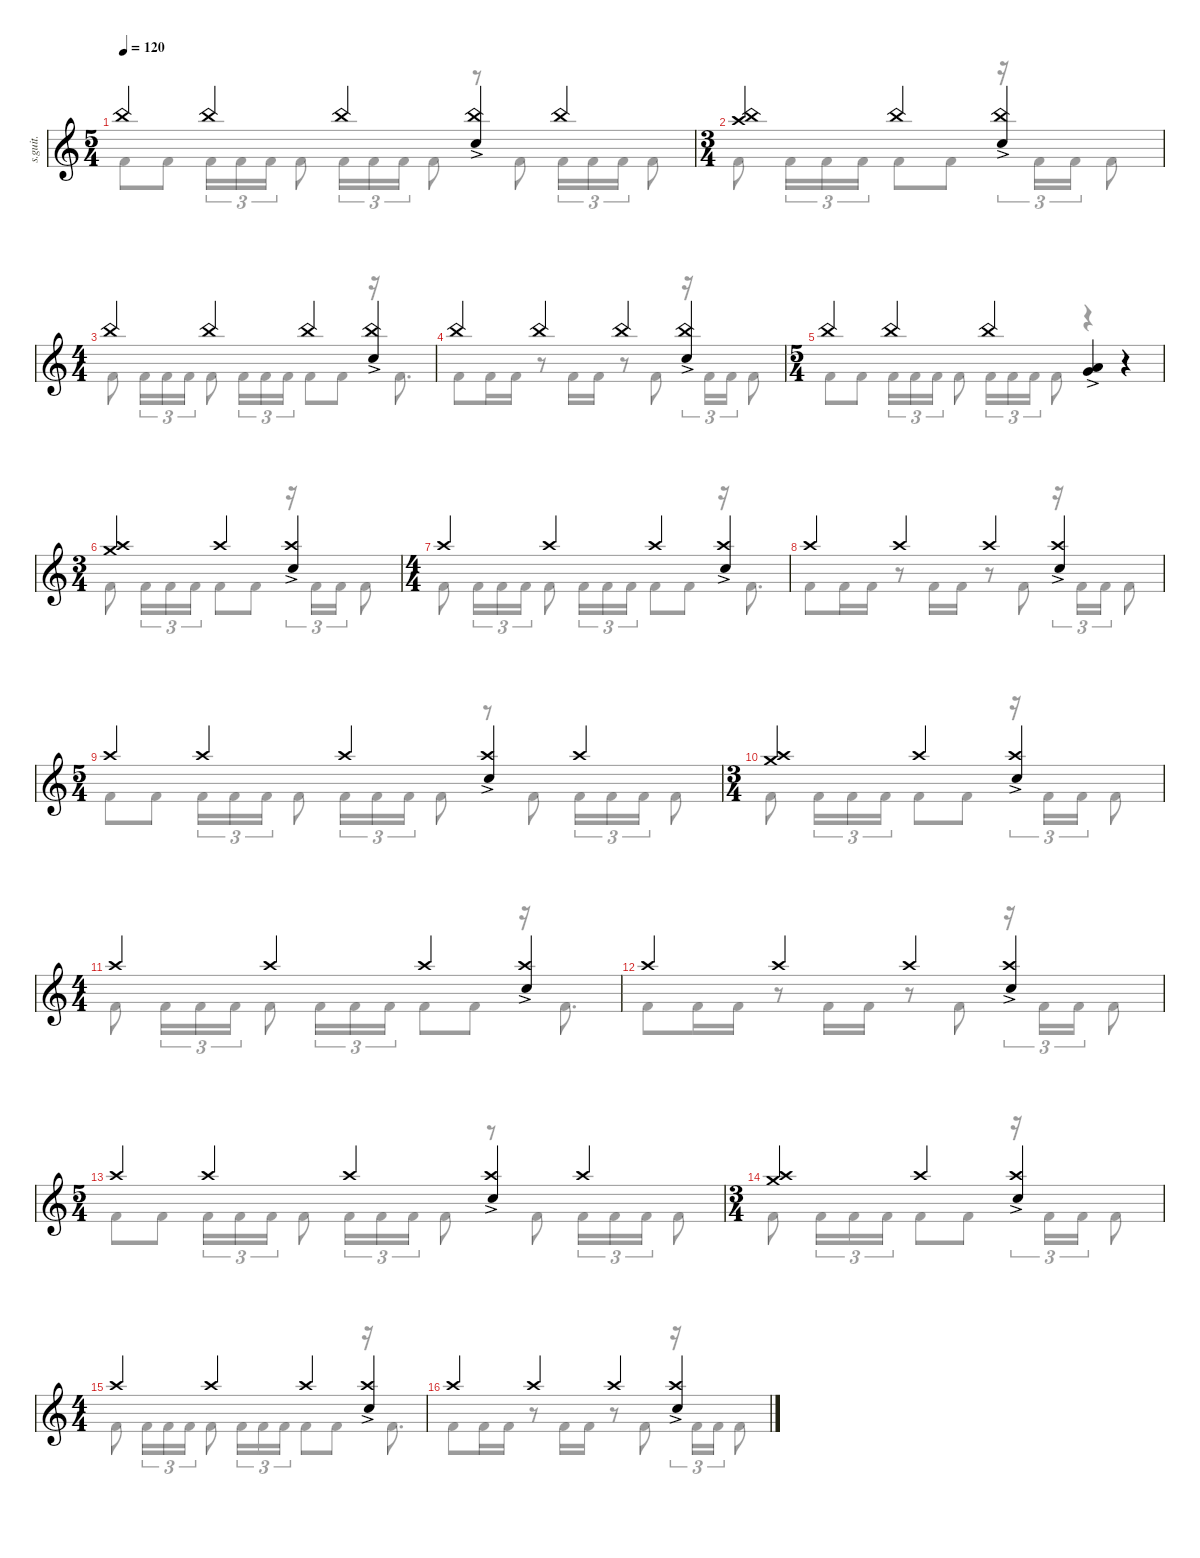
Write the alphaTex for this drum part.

\defaultSystemsLayout 4
\hideDynamics
\bracketExtendMode nobrackets
\track ("Percussion" "s.guit.") {instrument percussion}
\staff {score}
\articulation defaults
\voice
\ts (5 4)
\beaming (8 2 2 2 2)
\tempo 120
\clef g2
\ks c "China (hit)".4{lyrics (0 "") lyrics (1 "") lyrics (2 "") lyrics (3 "") lyrics (4 "") dy f} "China (hit)".4{lyrics (0 "") lyrics (1 "") lyrics (2 "") lyrics (3 "") lyrics (4 "")} "China (hit)".4{lyrics (0 "") lyrics (1 "") lyrics (2 "") lyrics (3 "") lyrics (4 "")}
("China (hit)" "Snare (hit) 2"{ac}).4{lyrics (0 "") lyrics (1 "") lyrics (2 "") lyrics (3 "") lyrics (4 "")} "China (hit)".4{lyrics (0 "") lyrics (1 "") lyrics (2 "") lyrics (3 "") lyrics (4 "")} |
\ts (3 4)
\beaming (8 2 2 2 2)
("China (hit)" "Crash high (hit)").4{lyrics (0 "") lyrics (1 "") lyrics (2 "") lyrics (3 "") lyrics (4 "")} "China (hit)".4{lyrics (0 "") lyrics (1 "") lyrics (2 "") lyrics (3 "") lyrics (4 "")} ("China (hit)" "Snare (hit) 2"{ac}).4{lyrics (0 "") lyrics (1 "") lyrics (2 "") lyrics (3 "") lyrics (4 "")} |
\ts (4 4)
\beaming (8 2 2 2 2)
"China (hit)".4{lyrics (0 "") lyrics (1 "") lyrics (2 "") lyrics (3 "") lyrics (4 "")} "China (hit)".4{lyrics (0 "") lyrics (1 "") lyrics (2 "") lyrics (3 "") lyrics (4 "")} "China (hit)".4{lyrics (0 "") lyrics (1 "") lyrics (2 "") lyrics (3 "") lyrics (4 "")} ("China (hit)" "Snare (hit) 2"{ac}).4{lyrics (0 "") lyrics (1 "") lyrics (2 "") lyrics (3 "") lyrics (4 "")} |
"China (hit)".4{lyrics (0 "") lyrics (1 "") lyrics (2 "") lyrics (3 "") lyrics (4 "")} "China (hit)".4{lyrics (0 "") lyrics (1 "") lyrics (2 "") lyrics (3 "") lyrics (4 "")} "China (hit)".4{lyrics (0 "") lyrics (1 "") lyrics (2 "") lyrics (3 "") lyrics (4 "")} ("China (hit)" "Snare (hit) 2"{ac}).4{lyrics (0 "") lyrics (1 "") lyrics (2 "") lyrics (3 "") lyrics (4 "")} |
\ts (5 4)
\beaming (8 2 2 2 2)
"China (hit)".4{lyrics (0 "") lyrics (1 "") lyrics (2 "") lyrics (3 "") lyrics (4 "")} "China (hit)".4{lyrics (0 "") lyrics (1 "") lyrics (2 "") lyrics (3 "") lyrics (4 "")} "China (hit)".4{lyrics (0 "") lyrics (1 "") lyrics (2 "") lyrics (3 "") lyrics (4 "")} ("Very Low Tom (hit)"{ac} "Low Tom (hit)"{ac}).4{lyrics (0 "") lyrics (1 "") lyrics (2 "") lyrics (3 "") lyrics (4 "") dy mf} r.4 |
\ts (3 4)
\beaming (8 2 2 2 2)
("Crash high (hit)" "Crash medium (hit)").4{lyrics (0 "") lyrics (1 "") lyrics (2 "") lyrics (3 "") lyrics (4 "") dy f} "Crash high (hit)".4{lyrics (0 "") lyrics (1 "") lyrics (2 "") lyrics (3 "") lyrics (4 "")} ("Snare (hit) 2"{ac} "Crash high (hit)").4{lyrics (0 "") lyrics (1 "") lyrics (2 "") lyrics (3 "") lyrics (4 "")} |
\ts (4 4)
\beaming (8 2 2 2 2)
"Crash high (hit)".4{lyrics (0 "") lyrics (1 "") lyrics (2 "") lyrics (3 "") lyrics (4 "")} "Crash high (hit)".4{lyrics (0 "") lyrics (1 "") lyrics (2 "") lyrics (3 "") lyrics (4 "")} "Crash high (hit)".4{lyrics (0 "") lyrics (1 "") lyrics (2 "") lyrics (3 "") lyrics (4 "")} ("Snare (hit) 2"{ac} "Crash high (hit)").4{lyrics (0 "") lyrics (1 "") lyrics (2 "") lyrics (3 "") lyrics (4 "")} |
"Crash high (hit)".4{lyrics (0 "") lyrics (1 "") lyrics (2 "") lyrics (3 "") lyrics (4 "")} "Crash high (hit)".4{lyrics (0 "") lyrics (1 "") lyrics (2 "") lyrics (3 "") lyrics (4 "")} "Crash high (hit)".4{lyrics (0 "") lyrics (1 "") lyrics (2 "") lyrics (3 "") lyrics (4 "")} ("Snare (hit) 2"{ac} "Crash high (hit)").4{lyrics (0 "") lyrics (1 "") lyrics (2 "") lyrics (3 "") lyrics (4 "")} |
\ts (5 4)
\beaming (8 2 2 2 2)
"Crash high (hit)".4{lyrics (0 "") lyrics (1 "") lyrics (2 "") lyrics (3 "") lyrics (4 "")} "Crash high (hit)".4{lyrics (0 "") lyrics (1 "") lyrics (2 "") lyrics (3 "") lyrics (4 "")} "Crash high (hit)".4{lyrics (0 "") lyrics (1 "") lyrics (2 "") lyrics (3 "") lyrics (4 "")} ("Snare (hit) 2"{ac} "Crash high (hit)").4{lyrics (0 "") lyrics (1 "") lyrics (2 "") lyrics (3 "") lyrics (4 "")} "Crash high (hit)".4{lyrics (0 "") lyrics (1 "") lyrics (2 "") lyrics (3 "") lyrics (4 "")} |
\ts (3 4)
\beaming (8 2 2 2 2)
("Crash high (hit)" "Crash medium (hit)").4{lyrics (0 "") lyrics (1 "") lyrics (2 "") lyrics (3 "") lyrics (4 "")} "Crash high (hit)".4{lyrics (0 "") lyrics (1 "") lyrics (2 "") lyrics (3 "") lyrics (4 "")} ("Snare (hit) 2"{ac} "Crash high (hit)").4{lyrics (0 "") lyrics (1 "") lyrics (2 "") lyrics (3 "") lyrics (4 "")} |
\ts (4 4)
\beaming (8 2 2 2 2)
"Crash high (hit)".4{lyrics (0 "") lyrics (1 "") lyrics (2 "") lyrics (3 "") lyrics (4 "")} "Crash high (hit)".4{lyrics (0 "") lyrics (1 "") lyrics (2 "") lyrics (3 "") lyrics (4 "")} "Crash high (hit)".4{lyrics (0 "") lyrics (1 "") lyrics (2 "") lyrics (3 "") lyrics (4 "")} ("Snare (hit) 2"{ac} "Crash high (hit)").4{lyrics (0 "") lyrics (1 "") lyrics (2 "") lyrics (3 "") lyrics (4 "")} |
"Crash high (hit)".4{lyrics (0 "") lyrics (1 "") lyrics (2 "") lyrics (3 "") lyrics (4 "")} "Crash high (hit)".4{lyrics (0 "") lyrics (1 "") lyrics (2 "") lyrics (3 "") lyrics (4 "")} "Crash high (hit)".4{lyrics (0 "") lyrics (1 "") lyrics (2 "") lyrics (3 "") lyrics (4 "")} ("Snare (hit) 2"{ac} "Crash high (hit)").4{lyrics (0 "") lyrics (1 "") lyrics (2 "") lyrics (3 "") lyrics (4 "")} |
\ts (5 4)
\beaming (8 2 2 2 2)
"Crash high (hit)".4{lyrics (0 "") lyrics (1 "") lyrics (2 "") lyrics (3 "") lyrics (4 "")} "Crash high (hit)".4{lyrics (0 "") lyrics (1 "") lyrics (2 "") lyrics (3 "") lyrics (4 "")} "Crash high (hit)".4{lyrics (0 "") lyrics (1 "") lyrics (2 "") lyrics (3 "") lyrics (4 "")} ("Snare (hit) 2"{ac} "Crash high (hit)").4{lyrics (0 "") lyrics (1 "") lyrics (2 "") lyrics (3 "") lyrics (4 "")} "Crash high (hit)".4{lyrics (0 "") lyrics (1 "") lyrics (2 "") lyrics (3 "") lyrics (4 "")} |
\ts (3 4)
\beaming (8 2 2 2 2)
("Crash high (hit)" "Crash medium (hit)").4{lyrics (0 "") lyrics (1 "") lyrics (2 "") lyrics (3 "") lyrics (4 "")} "Crash high (hit)".4{lyrics (0 "") lyrics (1 "") lyrics (2 "") lyrics (3 "") lyrics (4 "")} ("Snare (hit) 2"{ac} "Crash high (hit)").4{lyrics (0 "") lyrics (1 "") lyrics (2 "") lyrics (3 "") lyrics (4 "")} |
\ts (4 4)
\beaming (8 2 2 2 2)
"Crash high (hit)".4{lyrics (0 "") lyrics (1 "") lyrics (2 "") lyrics (3 "") lyrics (4 "")} "Crash high (hit)".4{lyrics (0 "") lyrics (1 "") lyrics (2 "") lyrics (3 "") lyrics (4 "")} "Crash high (hit)".4{lyrics (0 "") lyrics (1 "") lyrics (2 "") lyrics (3 "") lyrics (4 "")} ("Snare (hit) 2"{ac} "Crash high (hit)").4{lyrics (0 "") lyrics (1 "") lyrics (2 "") lyrics (3 "") lyrics (4 "")} |
"Crash high (hit)".4{lyrics (0 "") lyrics (1 "") lyrics (2 "") lyrics (3 "") lyrics (4 "")} "Crash high (hit)".4{lyrics (0 "") lyrics (1 "") lyrics (2 "") lyrics (3 "") lyrics (4 "")} "Crash high (hit)".4{lyrics (0 "") lyrics (1 "") lyrics (2 "") lyrics (3 "") lyrics (4 "")} ("Snare (hit) 2"{ac} "Crash high (hit)").4{lyrics (0 "") lyrics (1 "") lyrics (2 "") lyrics (3 "") lyrics (4 "")}
\voice
\clef g2
\ottava regular
\simile none
\ks c "Kick (hit) 2".8{lyrics (0 "") lyrics (1 "") lyrics (2 "") lyrics (3 "") lyrics (4 "") dy f} "Kick (hit) 2".8{lyrics (0 "") lyrics (1 "") lyrics (2 "") lyrics (3 "") lyrics (4 "")} "Kick (hit) 2".16{tu (3 2) lyrics (0 "") lyrics (1 "") lyrics (2 "") lyrics (3 "") lyrics (4 "")} "Kick (hit) 2".16{tu (3 2) lyrics (0 "") lyrics (1 "") lyrics (2 "") lyrics (3 "") lyrics (4 "")} "Kick (hit) 2".16{tu (3 2) lyrics (0 "") lyrics (1 "") lyrics (2 "") lyrics (3 "") lyrics (4 "")} "Kick (hit) 2".8{lyrics (0 "") lyrics (1 "") lyrics (2 "") lyrics (3 "") lyrics (4 "")} "Kick (hit) 2".16{tu (3 2) lyrics (0 "") lyrics (1 "") lyrics (2 "") lyrics (3 "") lyrics (4 "")} "Kick (hit) 2".16{tu (3 2) lyrics (0 "") lyrics (1 "") lyrics (2 "") lyrics (3 "") lyrics (4 "")} "Kick (hit) 2".16{tu (3 2) lyrics (0 "") lyrics (1 "") lyrics (2 "") lyrics (3 "") lyrics (4 "")} "Kick (hit) 2".8{lyrics (0 "") lyrics (1 "") lyrics (2 "") lyrics (3 "") lyrics (4 "")}
r.8 "Kick (hit) 2".8{lyrics (0 "") lyrics (1 "") lyrics (2 "") lyrics (3 "") lyrics (4 "")} "Kick (hit) 2".16{tu (3 2) lyrics (0 "") lyrics (1 "") lyrics (2 "") lyrics (3 "") lyrics (4 "")} "Kick (hit) 2".16{tu (3 2) lyrics (0 "") lyrics (1 "") lyrics (2 "") lyrics (3 "") lyrics (4 "")} "Kick (hit) 2".16{tu (3 2) lyrics (0 "") lyrics (1 "") lyrics (2 "") lyrics (3 "") lyrics (4 "")} "Kick (hit) 2".8{lyrics (0 "") lyrics (1 "") lyrics (2 "") lyrics (3 "") lyrics (4 "")} |
"Kick (hit) 2".8{lyrics (0 "") lyrics (1 "") lyrics (2 "") lyrics (3 "") lyrics (4 "")} "Kick (hit) 2".16{tu (3 2) lyrics (0 "") lyrics (1 "") lyrics (2 "") lyrics (3 "") lyrics (4 "")} "Kick (hit) 2".16{tu (3 2) lyrics (0 "") lyrics (1 "") lyrics (2 "") lyrics (3 "") lyrics (4 "")} "Kick (hit) 2".16{tu (3 2) lyrics (0 "") lyrics (1 "") lyrics (2 "") lyrics (3 "") lyrics (4 "")} "Kick (hit) 2".8{lyrics (0 "") lyrics (1 "") lyrics (2 "") lyrics (3 "") lyrics (4 "")} "Kick (hit) 2".8{lyrics (0 "") lyrics (1 "") lyrics (2 "") lyrics (3 "") lyrics (4 "")} r.16{tu (3 2)} "Kick (hit) 2".16{tu (3 2) lyrics (0 "") lyrics (1 "") lyrics (2 "") lyrics (3 "") lyrics (4 "")} "Kick (hit) 2".16{tu (3 2) lyrics (0 "") lyrics (1 "") lyrics (2 "") lyrics (3 "") lyrics (4 "")} "Kick (hit) 2".8{lyrics (0 "") lyrics (1 "") lyrics (2 "") lyrics (3 "") lyrics (4 "")} |
"Kick (hit) 2".8{lyrics (0 "") lyrics (1 "") lyrics (2 "") lyrics (3 "") lyrics (4 "")} "Kick (hit) 2".16{tu (3 2) lyrics (0 "") lyrics (1 "") lyrics (2 "") lyrics (3 "") lyrics (4 "")} "Kick (hit) 2".16{tu (3 2) lyrics (0 "") lyrics (1 "") lyrics (2 "") lyrics (3 "") lyrics (4 "")} "Kick (hit) 2".16{tu (3 2) lyrics (0 "") lyrics (1 "") lyrics (2 "") lyrics (3 "") lyrics (4 "")} "Kick (hit) 2".8{lyrics (0 "") lyrics (1 "") lyrics (2 "") lyrics (3 "") lyrics (4 "")} "Kick (hit) 2".16{tu (3 2) lyrics (0 "") lyrics (1 "") lyrics (2 "") lyrics (3 "") lyrics (4 "")} "Kick (hit) 2".16{tu (3 2) lyrics (0 "") lyrics (1 "") lyrics (2 "") lyrics (3 "") lyrics (4 "")} "Kick (hit) 2".16{tu (3 2) lyrics (0 "") lyrics (1 "") lyrics (2 "") lyrics (3 "") lyrics (4 "")} "Kick (hit) 2".8{lyrics (0 "") lyrics (1 "") lyrics (2 "") lyrics (3 "") lyrics (4 "")} "Kick (hit) 2".8{lyrics (0 "") lyrics (1 "") lyrics (2 "") lyrics (3 "") lyrics (4 "")} r.16 "Kick (hit) 2".8{d lyrics (0 "") lyrics (1 "") lyrics (2 "") lyrics (3 "") lyrics (4 "")} |
"Kick (hit) 2".8{lyrics (0 "") lyrics (1 "") lyrics (2 "") lyrics (3 "") lyrics (4 "")} "Kick (hit) 2".16{lyrics (0 "") lyrics (1 "") lyrics (2 "") lyrics (3 "") lyrics (4 "")} "Kick (hit) 2".16{lyrics (0 "") lyrics (1 "") lyrics (2 "") lyrics (3 "") lyrics (4 "")} r.8 "Kick (hit) 2".16{lyrics (0 "") lyrics (1 "") lyrics (2 "") lyrics (3 "") lyrics (4 "")} "Kick (hit) 2".16{lyrics (0 "") lyrics (1 "") lyrics (2 "") lyrics (3 "") lyrics (4 "")} r.8 "Kick (hit) 2".8{lyrics (0 "") lyrics (1 "") lyrics (2 "") lyrics (3 "") lyrics (4 "")} r.16{tu (3 2)} "Kick (hit) 2".16{tu (3 2) lyrics (0 "") lyrics (1 "") lyrics (2 "") lyrics (3 "") lyrics (4 "")} "Kick (hit) 2".16{tu (3 2) lyrics (0 "") lyrics (1 "") lyrics (2 "") lyrics (3 "") lyrics (4 "")} "Kick (hit) 2".8{lyrics (0 "") lyrics (1 "") lyrics (2 "") lyrics (3 "") lyrics (4 "")} |
"Kick (hit) 2".8{lyrics (0 "") lyrics (1 "") lyrics (2 "") lyrics (3 "") lyrics (4 "")} "Kick (hit) 2".8{lyrics (0 "") lyrics (1 "") lyrics (2 "") lyrics (3 "") lyrics (4 "")} "Kick (hit) 2".16{tu (3 2) lyrics (0 "") lyrics (1 "") lyrics (2 "") lyrics (3 "") lyrics (4 "")} "Kick (hit) 2".16{tu (3 2) lyrics (0 "") lyrics (1 "") lyrics (2 "") lyrics (3 "") lyrics (4 "")} "Kick (hit) 2".16{tu (3 2) lyrics (0 "") lyrics (1 "") lyrics (2 "") lyrics (3 "") lyrics (4 "")} "Kick (hit) 2".8{lyrics (0 "") lyrics (1 "") lyrics (2 "") lyrics (3 "") lyrics (4 "")} "Kick (hit) 2".16{tu (3 2) lyrics (0 "") lyrics (1 "") lyrics (2 "") lyrics (3 "") lyrics (4 "")} "Kick (hit) 2".16{tu (3 2) lyrics (0 "") lyrics (1 "") lyrics (2 "") lyrics (3 "") lyrics (4 "")} "Kick (hit) 2".16{tu (3 2) lyrics (0 "") lyrics (1 "") lyrics (2 "") lyrics (3 "") lyrics (4 "")} "Kick (hit) 2".8{lyrics (0 "") lyrics (1 "") lyrics (2 "") lyrics (3 "") lyrics (4 "")} r.4 r.4 |
"Kick (hit) 2".8{lyrics (0 "") lyrics (1 "") lyrics (2 "") lyrics (3 "") lyrics (4 "")} "Kick (hit) 2".16{tu (3 2) lyrics (0 "") lyrics (1 "") lyrics (2 "") lyrics (3 "") lyrics (4 "")} "Kick (hit) 2".16{tu (3 2) lyrics (0 "") lyrics (1 "") lyrics (2 "") lyrics (3 "") lyrics (4 "")} "Kick (hit) 2".16{tu (3 2) lyrics (0 "") lyrics (1 "") lyrics (2 "") lyrics (3 "") lyrics (4 "")} "Kick (hit) 2".8{lyrics (0 "") lyrics (1 "") lyrics (2 "") lyrics (3 "") lyrics (4 "")} "Kick (hit) 2".8{lyrics (0 "") lyrics (1 "") lyrics (2 "") lyrics (3 "") lyrics (4 "")} r.16{tu (3 2)} "Kick (hit) 2".16{tu (3 2) lyrics (0 "") lyrics (1 "") lyrics (2 "") lyrics (3 "") lyrics (4 "")} "Kick (hit) 2".16{tu (3 2) lyrics (0 "") lyrics (1 "") lyrics (2 "") lyrics (3 "") lyrics (4 "")} "Kick (hit) 2".8{lyrics (0 "") lyrics (1 "") lyrics (2 "") lyrics (3 "") lyrics (4 "")} |
"Kick (hit) 2".8{lyrics (0 "") lyrics (1 "") lyrics (2 "") lyrics (3 "") lyrics (4 "")} "Kick (hit) 2".16{tu (3 2) lyrics (0 "") lyrics (1 "") lyrics (2 "") lyrics (3 "") lyrics (4 "")} "Kick (hit) 2".16{tu (3 2) lyrics (0 "") lyrics (1 "") lyrics (2 "") lyrics (3 "") lyrics (4 "")} "Kick (hit) 2".16{tu (3 2) lyrics (0 "") lyrics (1 "") lyrics (2 "") lyrics (3 "") lyrics (4 "")} "Kick (hit) 2".8{lyrics (0 "") lyrics (1 "") lyrics (2 "") lyrics (3 "") lyrics (4 "")} "Kick (hit) 2".16{tu (3 2) lyrics (0 "") lyrics (1 "") lyrics (2 "") lyrics (3 "") lyrics (4 "")} "Kick (hit) 2".16{tu (3 2) lyrics (0 "") lyrics (1 "") lyrics (2 "") lyrics (3 "") lyrics (4 "")} "Kick (hit) 2".16{tu (3 2) lyrics (0 "") lyrics (1 "") lyrics (2 "") lyrics (3 "") lyrics (4 "")} "Kick (hit) 2".8{lyrics (0 "") lyrics (1 "") lyrics (2 "") lyrics (3 "") lyrics (4 "")} "Kick (hit) 2".8{lyrics (0 "") lyrics (1 "") lyrics (2 "") lyrics (3 "") lyrics (4 "")} r.16 "Kick (hit) 2".8{d lyrics (0 "") lyrics (1 "") lyrics (2 "") lyrics (3 "") lyrics (4 "")} |
"Kick (hit) 2".8{lyrics (0 "") lyrics (1 "") lyrics (2 "") lyrics (3 "") lyrics (4 "")} "Kick (hit) 2".16{lyrics (0 "") lyrics (1 "") lyrics (2 "") lyrics (3 "") lyrics (4 "")} "Kick (hit) 2".16{lyrics (0 "") lyrics (1 "") lyrics (2 "") lyrics (3 "") lyrics (4 "")} r.8 "Kick (hit) 2".16{lyrics (0 "") lyrics (1 "") lyrics (2 "") lyrics (3 "") lyrics (4 "")} "Kick (hit) 2".16{lyrics (0 "") lyrics (1 "") lyrics (2 "") lyrics (3 "") lyrics (4 "")} r.8 "Kick (hit) 2".8{lyrics (0 "") lyrics (1 "") lyrics (2 "") lyrics (3 "") lyrics (4 "")} r.16{tu (3 2)} "Kick (hit) 2".16{tu (3 2) lyrics (0 "") lyrics (1 "") lyrics (2 "") lyrics (3 "") lyrics (4 "")} "Kick (hit) 2".16{tu (3 2) lyrics (0 "") lyrics (1 "") lyrics (2 "") lyrics (3 "") lyrics (4 "")} "Kick (hit) 2".8{lyrics (0 "") lyrics (1 "") lyrics (2 "") lyrics (3 "") lyrics (4 "")} |
"Kick (hit) 2".8{lyrics (0 "") lyrics (1 "") lyrics (2 "") lyrics (3 "") lyrics (4 "")} "Kick (hit) 2".8{lyrics (0 "") lyrics (1 "") lyrics (2 "") lyrics (3 "") lyrics (4 "")} "Kick (hit) 2".16{tu (3 2) lyrics (0 "") lyrics (1 "") lyrics (2 "") lyrics (3 "") lyrics (4 "")} "Kick (hit) 2".16{tu (3 2) lyrics (0 "") lyrics (1 "") lyrics (2 "") lyrics (3 "") lyrics (4 "")} "Kick (hit) 2".16{tu (3 2) lyrics (0 "") lyrics (1 "") lyrics (2 "") lyrics (3 "") lyrics (4 "")} "Kick (hit) 2".8{lyrics (0 "") lyrics (1 "") lyrics (2 "") lyrics (3 "") lyrics (4 "")} "Kick (hit) 2".16{tu (3 2) lyrics (0 "") lyrics (1 "") lyrics (2 "") lyrics (3 "") lyrics (4 "")} "Kick (hit) 2".16{tu (3 2) lyrics (0 "") lyrics (1 "") lyrics (2 "") lyrics (3 "") lyrics (4 "")} "Kick (hit) 2".16{tu (3 2) lyrics (0 "") lyrics (1 "") lyrics (2 "") lyrics (3 "") lyrics (4 "")} "Kick (hit) 2".8{lyrics (0 "") lyrics (1 "") lyrics (2 "") lyrics (3 "") lyrics (4 "")} r.8 "Kick (hit) 2".8{lyrics (0 "") lyrics (1 "") lyrics (2 "") lyrics (3 "") lyrics (4 "")} "Kick (hit) 2".16{tu (3 2) lyrics (0 "") lyrics (1 "") lyrics (2 "") lyrics (3 "") lyrics (4 "")} "Kick (hit) 2".16{tu (3 2) lyrics (0 "") lyrics (1 "") lyrics (2 "") lyrics (3 "") lyrics (4 "")} "Kick (hit) 2".16{tu (3 2) lyrics (0 "") lyrics (1 "") lyrics (2 "") lyrics (3 "") lyrics (4 "")} "Kick (hit) 2".8{lyrics (0 "") lyrics (1 "") lyrics (2 "") lyrics (3 "") lyrics (4 "")} |
"Kick (hit) 2".8{lyrics (0 "") lyrics (1 "") lyrics (2 "") lyrics (3 "") lyrics (4 "")} "Kick (hit) 2".16{tu (3 2) lyrics (0 "") lyrics (1 "") lyrics (2 "") lyrics (3 "") lyrics (4 "")} "Kick (hit) 2".16{tu (3 2) lyrics (0 "") lyrics (1 "") lyrics (2 "") lyrics (3 "") lyrics (4 "")} "Kick (hit) 2".16{tu (3 2) lyrics (0 "") lyrics (1 "") lyrics (2 "") lyrics (3 "") lyrics (4 "")} "Kick (hit) 2".8{lyrics (0 "") lyrics (1 "") lyrics (2 "") lyrics (3 "") lyrics (4 "")} "Kick (hit) 2".8{lyrics (0 "") lyrics (1 "") lyrics (2 "") lyrics (3 "") lyrics (4 "")} r.16{tu (3 2)} "Kick (hit) 2".16{tu (3 2) lyrics (0 "") lyrics (1 "") lyrics (2 "") lyrics (3 "") lyrics (4 "")} "Kick (hit) 2".16{tu (3 2) lyrics (0 "") lyrics (1 "") lyrics (2 "") lyrics (3 "") lyrics (4 "")} "Kick (hit) 2".8{lyrics (0 "") lyrics (1 "") lyrics (2 "") lyrics (3 "") lyrics (4 "")} |
"Kick (hit) 2".8{lyrics (0 "") lyrics (1 "") lyrics (2 "") lyrics (3 "") lyrics (4 "")} "Kick (hit) 2".16{tu (3 2) lyrics (0 "") lyrics (1 "") lyrics (2 "") lyrics (3 "") lyrics (4 "")} "Kick (hit) 2".16{tu (3 2) lyrics (0 "") lyrics (1 "") lyrics (2 "") lyrics (3 "") lyrics (4 "")} "Kick (hit) 2".16{tu (3 2) lyrics (0 "") lyrics (1 "") lyrics (2 "") lyrics (3 "") lyrics (4 "")} "Kick (hit) 2".8{lyrics (0 "") lyrics (1 "") lyrics (2 "") lyrics (3 "") lyrics (4 "")} "Kick (hit) 2".16{tu (3 2) lyrics (0 "") lyrics (1 "") lyrics (2 "") lyrics (3 "") lyrics (4 "")} "Kick (hit) 2".16{tu (3 2) lyrics (0 "") lyrics (1 "") lyrics (2 "") lyrics (3 "") lyrics (4 "")} "Kick (hit) 2".16{tu (3 2) lyrics (0 "") lyrics (1 "") lyrics (2 "") lyrics (3 "") lyrics (4 "")} "Kick (hit) 2".8{lyrics (0 "") lyrics (1 "") lyrics (2 "") lyrics (3 "") lyrics (4 "")} "Kick (hit) 2".8{lyrics (0 "") lyrics (1 "") lyrics (2 "") lyrics (3 "") lyrics (4 "")} r.16 "Kick (hit) 2".8{d lyrics (0 "") lyrics (1 "") lyrics (2 "") lyrics (3 "") lyrics (4 "")} |
"Kick (hit) 2".8{lyrics (0 "") lyrics (1 "") lyrics (2 "") lyrics (3 "") lyrics (4 "")} "Kick (hit) 2".16{lyrics (0 "") lyrics (1 "") lyrics (2 "") lyrics (3 "") lyrics (4 "")} "Kick (hit) 2".16{lyrics (0 "") lyrics (1 "") lyrics (2 "") lyrics (3 "") lyrics (4 "")} r.8 "Kick (hit) 2".16{lyrics (0 "") lyrics (1 "") lyrics (2 "") lyrics (3 "") lyrics (4 "")} "Kick (hit) 2".16{lyrics (0 "") lyrics (1 "") lyrics (2 "") lyrics (3 "") lyrics (4 "")} r.8 "Kick (hit) 2".8{lyrics (0 "") lyrics (1 "") lyrics (2 "") lyrics (3 "") lyrics (4 "")} r.16{tu (3 2)} "Kick (hit) 2".16{tu (3 2) lyrics (0 "") lyrics (1 "") lyrics (2 "") lyrics (3 "") lyrics (4 "")} "Kick (hit) 2".16{tu (3 2) lyrics (0 "") lyrics (1 "") lyrics (2 "") lyrics (3 "") lyrics (4 "")} "Kick (hit) 2".8{lyrics (0 "") lyrics (1 "") lyrics (2 "") lyrics (3 "") lyrics (4 "")} |
"Kick (hit) 2".8{lyrics (0 "") lyrics (1 "") lyrics (2 "") lyrics (3 "") lyrics (4 "")} "Kick (hit) 2".8{lyrics (0 "") lyrics (1 "") lyrics (2 "") lyrics (3 "") lyrics (4 "")} "Kick (hit) 2".16{tu (3 2) lyrics (0 "") lyrics (1 "") lyrics (2 "") lyrics (3 "") lyrics (4 "")} "Kick (hit) 2".16{tu (3 2) lyrics (0 "") lyrics (1 "") lyrics (2 "") lyrics (3 "") lyrics (4 "")} "Kick (hit) 2".16{tu (3 2) lyrics (0 "") lyrics (1 "") lyrics (2 "") lyrics (3 "") lyrics (4 "")} "Kick (hit) 2".8{lyrics (0 "") lyrics (1 "") lyrics (2 "") lyrics (3 "") lyrics (4 "")} "Kick (hit) 2".16{tu (3 2) lyrics (0 "") lyrics (1 "") lyrics (2 "") lyrics (3 "") lyrics (4 "")} "Kick (hit) 2".16{tu (3 2) lyrics (0 "") lyrics (1 "") lyrics (2 "") lyrics (3 "") lyrics (4 "")} "Kick (hit) 2".16{tu (3 2) lyrics (0 "") lyrics (1 "") lyrics (2 "") lyrics (3 "") lyrics (4 "")} "Kick (hit) 2".8{lyrics (0 "") lyrics (1 "") lyrics (2 "") lyrics (3 "") lyrics (4 "")} r.8 "Kick (hit) 2".8{lyrics (0 "") lyrics (1 "") lyrics (2 "") lyrics (3 "") lyrics (4 "")} "Kick (hit) 2".16{tu (3 2) lyrics (0 "") lyrics (1 "") lyrics (2 "") lyrics (3 "") lyrics (4 "")} "Kick (hit) 2".16{tu (3 2) lyrics (0 "") lyrics (1 "") lyrics (2 "") lyrics (3 "") lyrics (4 "")} "Kick (hit) 2".16{tu (3 2) lyrics (0 "") lyrics (1 "") lyrics (2 "") lyrics (3 "") lyrics (4 "")} "Kick (hit) 2".8{lyrics (0 "") lyrics (1 "") lyrics (2 "") lyrics (3 "") lyrics (4 "")} |
"Kick (hit) 2".8{lyrics (0 "") lyrics (1 "") lyrics (2 "") lyrics (3 "") lyrics (4 "")} "Kick (hit) 2".16{tu (3 2) lyrics (0 "") lyrics (1 "") lyrics (2 "") lyrics (3 "") lyrics (4 "")} "Kick (hit) 2".16{tu (3 2) lyrics (0 "") lyrics (1 "") lyrics (2 "") lyrics (3 "") lyrics (4 "")} "Kick (hit) 2".16{tu (3 2) lyrics (0 "") lyrics (1 "") lyrics (2 "") lyrics (3 "") lyrics (4 "")} "Kick (hit) 2".8{lyrics (0 "") lyrics (1 "") lyrics (2 "") lyrics (3 "") lyrics (4 "")} "Kick (hit) 2".8{lyrics (0 "") lyrics (1 "") lyrics (2 "") lyrics (3 "") lyrics (4 "")} r.16{tu (3 2)} "Kick (hit) 2".16{tu (3 2) lyrics (0 "") lyrics (1 "") lyrics (2 "") lyrics (3 "") lyrics (4 "")} "Kick (hit) 2".16{tu (3 2) lyrics (0 "") lyrics (1 "") lyrics (2 "") lyrics (3 "") lyrics (4 "")} "Kick (hit) 2".8{lyrics (0 "") lyrics (1 "") lyrics (2 "") lyrics (3 "") lyrics (4 "")} |
"Kick (hit) 2".8{lyrics (0 "") lyrics (1 "") lyrics (2 "") lyrics (3 "") lyrics (4 "")} "Kick (hit) 2".16{tu (3 2) lyrics (0 "") lyrics (1 "") lyrics (2 "") lyrics (3 "") lyrics (4 "")} "Kick (hit) 2".16{tu (3 2) lyrics (0 "") lyrics (1 "") lyrics (2 "") lyrics (3 "") lyrics (4 "")} "Kick (hit) 2".16{tu (3 2) lyrics (0 "") lyrics (1 "") lyrics (2 "") lyrics (3 "") lyrics (4 "")} "Kick (hit) 2".8{lyrics (0 "") lyrics (1 "") lyrics (2 "") lyrics (3 "") lyrics (4 "")} "Kick (hit) 2".16{tu (3 2) lyrics (0 "") lyrics (1 "") lyrics (2 "") lyrics (3 "") lyrics (4 "")} "Kick (hit) 2".16{tu (3 2) lyrics (0 "") lyrics (1 "") lyrics (2 "") lyrics (3 "") lyrics (4 "")} "Kick (hit) 2".16{tu (3 2) lyrics (0 "") lyrics (1 "") lyrics (2 "") lyrics (3 "") lyrics (4 "")} "Kick (hit) 2".8{lyrics (0 "") lyrics (1 "") lyrics (2 "") lyrics (3 "") lyrics (4 "")} "Kick (hit) 2".8{lyrics (0 "") lyrics (1 "") lyrics (2 "") lyrics (3 "") lyrics (4 "")} r.16 "Kick (hit) 2".8{d lyrics (0 "") lyrics (1 "") lyrics (2 "") lyrics (3 "") lyrics (4 "")} |
"Kick (hit) 2".8{lyrics (0 "") lyrics (1 "") lyrics (2 "") lyrics (3 "") lyrics (4 "")} "Kick (hit) 2".16{lyrics (0 "") lyrics (1 "") lyrics (2 "") lyrics (3 "") lyrics (4 "")} "Kick (hit) 2".16{lyrics (0 "") lyrics (1 "") lyrics (2 "") lyrics (3 "") lyrics (4 "")} r.8 "Kick (hit) 2".16{lyrics (0 "") lyrics (1 "") lyrics (2 "") lyrics (3 "") lyrics (4 "")} "Kick (hit) 2".16{lyrics (0 "") lyrics (1 "") lyrics (2 "") lyrics (3 "") lyrics (4 "")} r.8 "Kick (hit) 2".8{lyrics (0 "") lyrics (1 "") lyrics (2 "") lyrics (3 "") lyrics (4 "")} r.16{tu (3 2)} "Kick (hit) 2".16{tu (3 2) lyrics (0 "") lyrics (1 "") lyrics (2 "") lyrics (3 "") lyrics (4 "")} "Kick (hit) 2".16{tu (3 2) lyrics (0 "") lyrics (1 "") lyrics (2 "") lyrics (3 "") lyrics (4 "")} "Kick (hit) 2".8{lyrics (0 "") lyrics (1 "") lyrics (2 "") lyrics (3 "") lyrics (4 "")}
